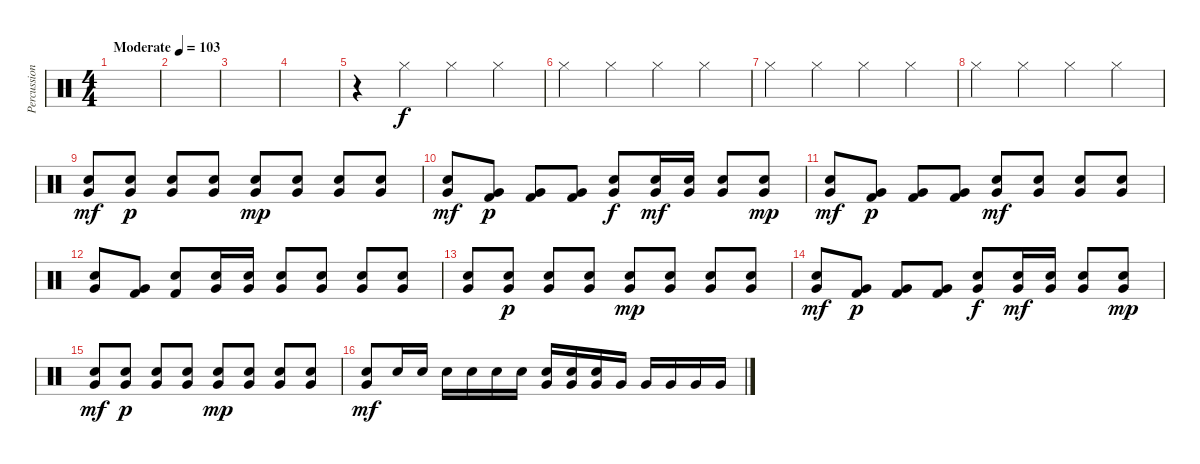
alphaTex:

\track ("Percussion" "Percussion") {instrument percussion}
\staff {score}
\articulation defaults
\ts (4 4)
\tempo (103 "Moderate")
\clef neutral
\ks c
|
|
|
|
r.4 "Hi-Hat (closed)".4 "Hi-Hat (closed)".4 "Hi-Hat (closed)".4 |
"Hi-Hat (closed)".4 "Hi-Hat (closed)".4 "Hi-Hat (closed)".4 "Hi-Hat (closed)".4 |
"Hi-Hat (closed)".4 "Hi-Hat (closed)".4 "Hi-Hat (closed)".4 "Hi-Hat (closed)".4 |
"Hi-Hat (closed)".4 "Hi-Hat (closed)".4 "Hi-Hat (closed)".4 "Hi-Hat (closed)".4 |
("Electric Snare (hit)" "Very Low Tom (hit)").8{dy mf} ("Electric Snare (hit)" "Very Low Tom (hit)").8{dy p} ("Electric Snare (hit)" "Very Low Tom (hit)").8 ("Electric Snare (hit)" "Very Low Tom (hit)").8 ("Electric Snare (hit)" "Very Low Tom (hit)").8{dy mp} ("Electric Snare (hit)" "Very Low Tom (hit)").8 ("Electric Snare (hit)" "Very Low Tom (hit)").8 ("Electric Snare (hit)" "Very Low Tom (hit)").8 |
("Electric Snare (hit)" "Very Low Tom (hit)").8{dy mf} ("Kick (hit) 2" "Very Low Tom (hit)").8{dy p} ("Kick (hit) 2" "Very Low Tom (hit)").8 ("Kick (hit) 2" "Very Low Tom (hit)").8 ("Electric Snare (hit)" "Very Low Tom (hit)").8{dy f} ("Electric Snare (hit)" "Very Low Tom (hit)").16{dy mf} ("Electric Snare (hit)" "Very Low Tom (hit)").16 ("Electric Snare (hit)" "Very Low Tom (hit)").8 ("Electric Snare (hit)" "Very Low Tom (hit)").8{dy mp} |
("Electric Snare (hit)" "Very Low Tom (hit)").8{dy mf} ("Kick (hit) 2" "Very Low Tom (hit)").8{dy p} ("Kick (hit) 2" "Very Low Tom (hit)").8 ("Kick (hit) 2" "Very Low Tom (hit)").8 ("Electric Snare (hit)" "Very Low Tom (hit)").8{dy mf} ("Electric Snare (hit)" "Very Low Tom (hit)").8 ("Electric Snare (hit)" "Very Low Tom (hit)").8 ("Electric Snare (hit)" "Very Low Tom (hit)").8 |
("Electric Snare (hit)" "Very Low Tom (hit)").8 ("Kick (hit) 2" "Very Low Tom (hit)").8 ("Electric Snare (hit)" "Kick (hit) 2").8 ("Electric Snare (hit)" "Very Low Tom (hit)").16 ("Electric Snare (hit)" "Very Low Tom (hit)").16 ("Electric Snare (hit)" "Very Low Tom (hit)").8 ("Electric Snare (hit)" "Very Low Tom (hit)").8 ("Electric Snare (hit)" "Very Low Tom (hit)").8 ("Electric Snare (hit)" "Very Low Tom (hit)").8 |
("Electric Snare (hit)" "Very Low Tom (hit)").8 ("Electric Snare (hit)" "Very Low Tom (hit)").8{dy p} ("Electric Snare (hit)" "Very Low Tom (hit)").8 ("Electric Snare (hit)" "Very Low Tom (hit)").8 ("Electric Snare (hit)" "Very Low Tom (hit)").8{dy mp} ("Electric Snare (hit)" "Very Low Tom (hit)").8 ("Electric Snare (hit)" "Very Low Tom (hit)").8 ("Electric Snare (hit)" "Very Low Tom (hit)").8 |
("Electric Snare (hit)" "Very Low Tom (hit)").8{dy mf} ("Kick (hit) 2" "Very Low Tom (hit)").8{dy p} ("Kick (hit) 2" "Very Low Tom (hit)").8 ("Kick (hit) 2" "Very Low Tom (hit)").8 ("Electric Snare (hit)" "Very Low Tom (hit)").8{dy f} ("Electric Snare (hit)" "Very Low Tom (hit)").16{dy mf} ("Electric Snare (hit)" "Very Low Tom (hit)").16 ("Electric Snare (hit)" "Very Low Tom (hit)").8 ("Electric Snare (hit)" "Very Low Tom (hit)").8{dy mp} |
("Electric Snare (hit)" "Very Low Tom (hit)").8{dy mf} ("Electric Snare (hit)" "Very Low Tom (hit)").8{dy p} ("Electric Snare (hit)" "Very Low Tom (hit)").8 ("Electric Snare (hit)" "Very Low Tom (hit)").8 ("Electric Snare (hit)" "Very Low Tom (hit)").8{dy mp} ("Electric Snare (hit)" "Very Low Tom (hit)").8 ("Electric Snare (hit)" "Very Low Tom (hit)").8 ("Electric Snare (hit)" "Very Low Tom (hit)").8 |
("Electric Snare (hit)" "Very Low Tom (hit)").8{dy mf} "Electric Snare (hit)".16 "Electric Snare (hit)".16 "Electric Snare (hit)".16 "Electric Snare (hit)".16 "Electric Snare (hit)".16 "Electric Snare (hit)".16 ("Electric Snare (hit)" "Very Low Tom (hit)").16 ("Electric Snare (hit)" "Very Low Tom (hit)").16 ("Electric Snare (hit)" "Very Low Tom (hit)").16 "Very Low Tom (hit)".16 "Very Low Tom (hit)".16 "Very Low Tom (hit)".16 "Very Low Tom (hit)".16 "Very Low Tom (hit)".16
